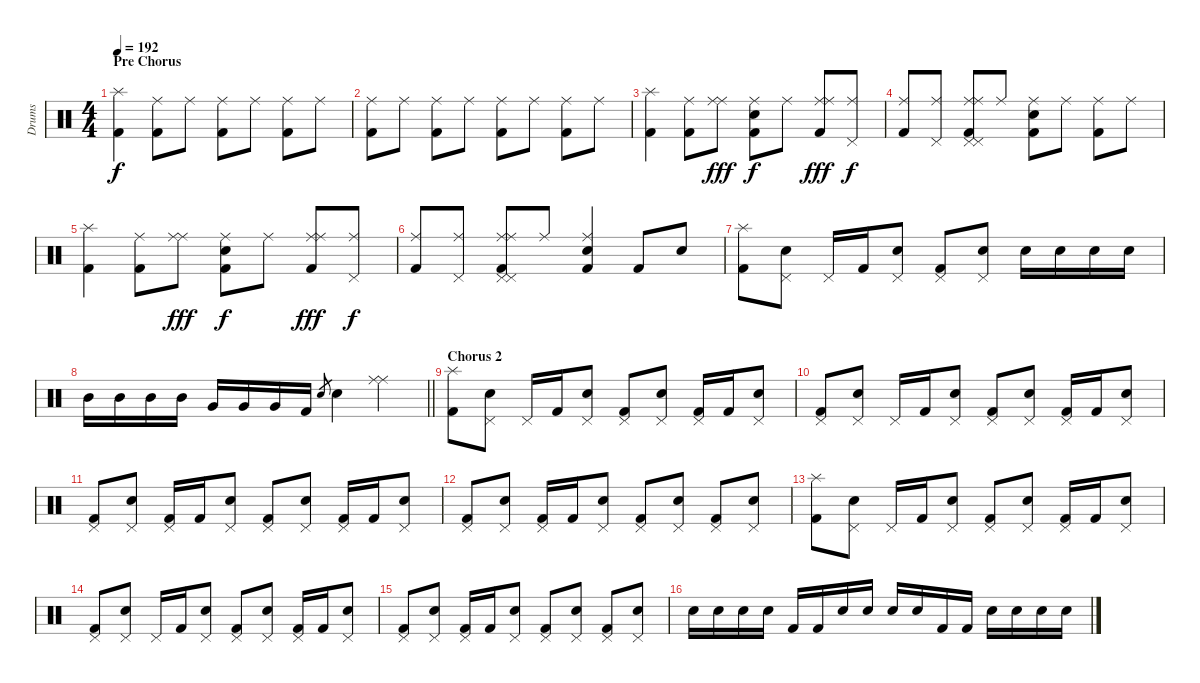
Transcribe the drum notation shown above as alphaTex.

\track ("Drums" "Drums") {instrument percussion}
\staff {score}
\articulation defaults
\ts (4 4)
\section ("" "Pre Chorus")
\tempo 192
\clef neutral
\ks c
("Splash (hit)" "Kick (hit) 2").4{dy f} ("Ride (middle)" "Kick (hit) 2").8 "Ride (middle)".8 ("Ride (middle)" "Kick (hit) 2").8 "Ride (middle)".8 ("Ride (middle)" "Kick (hit) 2").8 "Ride (middle)".8 |
("Ride (middle)" "Kick (hit) 2").8 "Ride (middle)".8 ("Ride (middle)" "Kick (hit) 2").8 "Ride (middle)".8 ("Ride (middle)" "Kick (hit) 2").8 "Ride (middle)".8 ("Ride (middle)" "Kick (hit) 2").8 "Ride (middle)".8 |
("Splash (hit)" "Kick (hit) 2").4 ("Ride (middle)" "Kick (hit) 2").8 ("Ride (middle)" "Ride (middle)").8{dy fff} ("Ride (middle)" "Electric Snare (hit)" "Kick (hit) 2").8{dy f} "Ride (middle)".8 ("Ride (middle)" "Ride (middle)" "Kick (hit) 2").8{dy fff} ("Ride (middle)" "Pedal Hi-Hat (hit)").8{dy f} |
("Ride (middle)" "Kick (hit) 2").8 ("Ride (middle)" "Pedal Hi-Hat (hit)").8 ("Ride (middle)" "Ride (middle)" "Pedal Hi-Hat (hit)" "Pedal Hi-Hat (hit)" "Kick (hit) 2").8 "Ride (middle)".8 ("Ride (middle)" "Electric Snare (hit)" "Kick (hit) 2").8 "Ride (middle)".8 ("Ride (middle)" "Kick (hit) 2").8 "Ride (middle)".8 |
("Splash (hit)" "Kick (hit) 2").4 ("Ride (middle)" "Kick (hit) 2").8 ("Ride (middle)" "Ride (middle)").8{dy fff} ("Ride (middle)" "Electric Snare (hit)" "Kick (hit) 2").8{dy f} "Ride (middle)".8 ("Ride (middle)" "Ride (middle)" "Kick (hit) 2").8{dy fff} ("Ride (middle)" "Pedal Hi-Hat (hit)").8{dy f} |
("Ride (middle)" "Kick (hit) 2").8 ("Ride (middle)" "Pedal Hi-Hat (hit)").8 ("Ride (middle)" "Ride (middle)" "Pedal Hi-Hat (hit)" "Pedal Hi-Hat (hit)" "Kick (hit) 2").8 "Ride (middle)".8 ("Ride (middle)" "Electric Snare (hit)" "Kick (hit) 2").4 "Kick (hit) 2".8 "Electric Snare (hit)".8 |
("Splash (hit)" "Kick (hit) 2").8 ("Pedal Hi-Hat (hit)" "Electric Snare (hit)").8 "Pedal Hi-Hat (hit)".16 "Kick (hit) 2".16 ("Pedal Hi-Hat (hit)" "Electric Snare (hit)").8 ("Pedal Hi-Hat (hit)" "Kick (hit) 2").8 ("Pedal Hi-Hat (hit)" "Electric Snare (hit)").8 "Electric Snare (hit)".16 "Electric Snare (hit)".16 "Electric Snare (hit)".16 "Electric Snare (hit)".16 |
\barLineRight lightlight "Mid Tom (hit)".16 "Mid Tom (hit)".16 "Mid Tom (hit)".16 "Mid Tom (hit)".16 "Very Low Tom (hit)".16 "Very Low Tom (hit)".16 "Very Low Tom (hit)".16 "Kick (hit) 2".16 "Electric Snare (hit)".8{gr} "Electric Snare (hit)".4
("Ride (middle)" "Ride (middle)").4 |
\section ("" "Chorus 2")
("Splash (hit)" "Kick (hit) 2").8 ("Pedal Hi-Hat (hit)" "Electric Snare (hit)").8 "Pedal Hi-Hat (hit)".16 "Kick (hit) 2".16 ("Pedal Hi-Hat (hit)" "Electric Snare (hit)").8 ("Pedal Hi-Hat (hit)" "Kick (hit) 2").8 ("Pedal Hi-Hat (hit)" "Electric Snare (hit)").8 ("Pedal Hi-Hat (hit)" "Kick (hit) 2").16 "Kick (hit) 2".16 ("Pedal Hi-Hat (hit)" "Electric Snare (hit)").8 |
("Pedal Hi-Hat (hit)" "Kick (hit) 2").8 ("Pedal Hi-Hat (hit)" "Electric Snare (hit)").8 "Pedal Hi-Hat (hit)".16 "Kick (hit) 2".16 ("Pedal Hi-Hat (hit)" "Electric Snare (hit)").8 ("Pedal Hi-Hat (hit)" "Kick (hit) 2").8 ("Pedal Hi-Hat (hit)" "Electric Snare (hit)").8 ("Pedal Hi-Hat (hit)" "Kick (hit) 2").16 "Kick (hit) 2".16 ("Pedal Hi-Hat (hit)" "Electric Snare (hit)").8 |
("Pedal Hi-Hat (hit)" "Kick (hit) 2").8 ("Pedal Hi-Hat (hit)" "Electric Snare (hit)").8 ("Pedal Hi-Hat (hit)" "Kick (hit) 2").16 "Kick (hit) 2".16 ("Pedal Hi-Hat (hit)" "Electric Snare (hit)").8 ("Pedal Hi-Hat (hit)" "Kick (hit) 2").8 ("Pedal Hi-Hat (hit)" "Electric Snare (hit)").8 ("Pedal Hi-Hat (hit)" "Kick (hit) 2").16 "Kick (hit) 2".16 ("Pedal Hi-Hat (hit)" "Electric Snare (hit)").8 |
("Pedal Hi-Hat (hit)" "Kick (hit) 2").8 ("Pedal Hi-Hat (hit)" "Electric Snare (hit)").8 ("Pedal Hi-Hat (hit)" "Kick (hit) 2").16 "Kick (hit) 2".16 ("Pedal Hi-Hat (hit)" "Electric Snare (hit)").8 ("Pedal Hi-Hat (hit)" "Kick (hit) 2").8 ("Pedal Hi-Hat (hit)" "Electric Snare (hit)").8 ("Pedal Hi-Hat (hit)" "Kick (hit) 2").8 ("Pedal Hi-Hat (hit)" "Electric Snare (hit)").8 |
("Splash (hit)" "Kick (hit) 2").8 ("Pedal Hi-Hat (hit)" "Electric Snare (hit)").8 "Pedal Hi-Hat (hit)".16 "Kick (hit) 2".16 ("Pedal Hi-Hat (hit)" "Electric Snare (hit)").8 ("Pedal Hi-Hat (hit)" "Kick (hit) 2").8 ("Pedal Hi-Hat (hit)" "Electric Snare (hit)").8 ("Pedal Hi-Hat (hit)" "Kick (hit) 2").16 "Kick (hit) 2".16 ("Pedal Hi-Hat (hit)" "Electric Snare (hit)").8 |
("Pedal Hi-Hat (hit)" "Kick (hit) 2").8 ("Pedal Hi-Hat (hit)" "Electric Snare (hit)").8 "Pedal Hi-Hat (hit)".16 "Kick (hit) 2".16 ("Pedal Hi-Hat (hit)" "Electric Snare (hit)").8 ("Pedal Hi-Hat (hit)" "Kick (hit) 2").8 ("Pedal Hi-Hat (hit)" "Electric Snare (hit)").8 ("Pedal Hi-Hat (hit)" "Kick (hit) 2").16 "Kick (hit) 2".16 ("Pedal Hi-Hat (hit)" "Electric Snare (hit)").8 |
("Pedal Hi-Hat (hit)" "Kick (hit) 2").8 ("Pedal Hi-Hat (hit)" "Electric Snare (hit)").8 ("Pedal Hi-Hat (hit)" "Kick (hit) 2").16 "Kick (hit) 2".16 ("Pedal Hi-Hat (hit)" "Electric Snare (hit)").8 ("Pedal Hi-Hat (hit)" "Kick (hit) 2").8 ("Pedal Hi-Hat (hit)" "Electric Snare (hit)").8 ("Pedal Hi-Hat (hit)" "Kick (hit) 2").8 ("Pedal Hi-Hat (hit)" "Electric Snare (hit)").8 |
"Electric Snare (hit)".16 "Electric Snare (hit)".16 "Electric Snare (hit)".16 "Electric Snare (hit)".16 "Kick (hit) 2".16 "Kick (hit) 2".16 "Electric Snare (hit)".16 "Electric Snare (hit)".16 "Electric Snare (hit)".16 "Electric Snare (hit)".16 "Kick (hit) 2".16 "Kick (hit) 2".16 "Electric Snare (hit)".16 "Electric Snare (hit)".16 "Electric Snare (hit)".16 "Electric Snare (hit)".16
